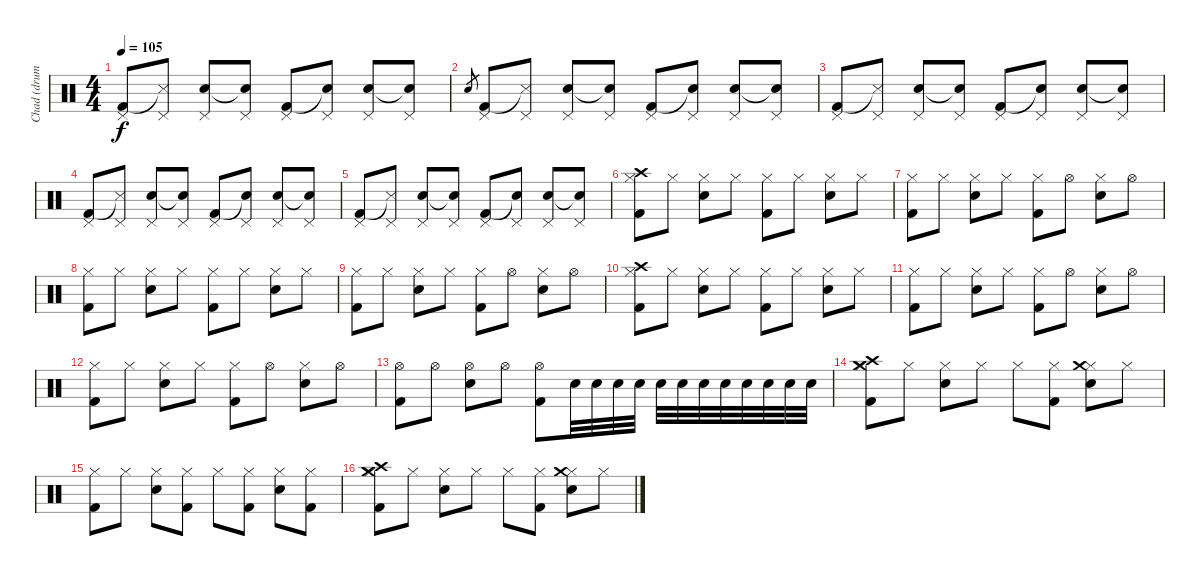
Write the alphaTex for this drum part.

\track ("Chad (drums)" "Chad (drum") {instrument percussion}
\staff {score}
\articulation defaults
\ts (4 4)
\tempo 105
\clef neutral
\ks c
("Pedal Hi-Hat (hit)" "Kick (hit) 2").8{dy f} ("Pedal Hi-Hat (hit)" "Snare (side stick) 3"{t}).8 ("Pedal Hi-Hat (hit)" "Electric Snare (hit)").8 ("Pedal Hi-Hat (hit)" "Snare (hit)"{t}).8 ("Pedal Hi-Hat (hit)" "Kick (hit) 2").8 ("Pedal Hi-Hat (hit)" "Snare (hit)"{t}).8 ("Pedal Hi-Hat (hit)" "Electric Snare (hit)").8 ("Pedal Hi-Hat (hit)" "Snare (hit)"{t}).8 |
"Electric Snare (hit)".8{gr} ("Pedal Hi-Hat (hit)" "Kick (hit) 2").8 ("Pedal Hi-Hat (hit)" "Snare (side stick) 3"{t}).8 ("Pedal Hi-Hat (hit)" "Electric Snare (hit)").8 ("Pedal Hi-Hat (hit)" "Snare (hit)"{t}).8 ("Pedal Hi-Hat (hit)" "Kick (hit) 2").8 ("Pedal Hi-Hat (hit)" "Snare (hit)"{t}).8 ("Pedal Hi-Hat (hit)" "Electric Snare (hit)").8 ("Pedal Hi-Hat (hit)" "Snare (hit)"{t}).8 |
("Pedal Hi-Hat (hit)" "Kick (hit) 2").8 ("Pedal Hi-Hat (hit)" "Snare (side stick) 3"{t}).8 ("Pedal Hi-Hat (hit)" "Electric Snare (hit)").8 ("Pedal Hi-Hat (hit)" "Snare (hit)"{t}).8 ("Pedal Hi-Hat (hit)" "Kick (hit) 2").8 ("Pedal Hi-Hat (hit)" "Snare (hit)"{t}).8 ("Pedal Hi-Hat (hit)" "Electric Snare (hit)").8 ("Pedal Hi-Hat (hit)" "Snare (hit)"{t}).8 |
("Pedal Hi-Hat (hit)" "Kick (hit) 2").8 ("Pedal Hi-Hat (hit)" "Snare (side stick) 3"{t}).8 ("Pedal Hi-Hat (hit)" "Electric Snare (hit)").8 ("Pedal Hi-Hat (hit)" "Snare (hit)"{t}).8 ("Pedal Hi-Hat (hit)" "Kick (hit) 2").8 ("Pedal Hi-Hat (hit)" "Snare (hit)"{t}).8 ("Pedal Hi-Hat (hit)" "Electric Snare (hit)").8 ("Pedal Hi-Hat (hit)" "Snare (hit)"{t}).8 |
("Pedal Hi-Hat (hit)" "Kick (hit) 2").8 ("Pedal Hi-Hat (hit)" "Snare (side stick) 3"{t}).8 ("Pedal Hi-Hat (hit)" "Electric Snare (hit)").8 ("Pedal Hi-Hat (hit)" "Snare (hit)"{t}).8 ("Pedal Hi-Hat (hit)" "Kick (hit) 2").8 ("Pedal Hi-Hat (hit)" "Snare (hit)"{t}).8 ("Pedal Hi-Hat (hit)" "Electric Snare (hit)").8 ("Pedal Hi-Hat (hit)" "Snare (hit)"{t}).8 |
("Hi-Hat (closed)" "Kick (hit) 2" "Crash high (hit)").8 "Hi-Hat (closed)".8 ("Hi-Hat (closed)" "Electric Snare (hit)").8 "Hi-Hat (closed)".8 ("Hi-Hat (closed)" "Kick (hit) 2").8 "Hi-Hat (closed)".8 ("Hi-Hat (closed)" "Electric Snare (hit)").8 "Hi-Hat (closed)".8 |
("Hi-Hat (closed)" "Kick (hit) 2").8 "Hi-Hat (closed)".8 ("Hi-Hat (closed)" "Electric Snare (hit)").8 "Hi-Hat (closed)".8 ("Hi-Hat (closed)" "Kick (hit) 2").8 "Hi-Hat (open)".8 ("Hi-Hat (closed)" "Electric Snare (hit)").8 "Hi-Hat (open)".8 |
("Hi-Hat (closed)" "Kick (hit) 2").8 "Hi-Hat (closed)".8 ("Hi-Hat (closed)" "Electric Snare (hit)").8 "Hi-Hat (closed)".8 ("Hi-Hat (closed)" "Kick (hit) 2").8 "Hi-Hat (closed)".8 ("Hi-Hat (closed)" "Electric Snare (hit)").8 "Hi-Hat (closed)".8 |
("Hi-Hat (closed)" "Kick (hit) 2").8 "Hi-Hat (closed)".8 ("Hi-Hat (closed)" "Electric Snare (hit)").8 "Hi-Hat (closed)".8 ("Hi-Hat (closed)" "Kick (hit) 2").8 "Hi-Hat (open)".8 ("Hi-Hat (closed)" "Electric Snare (hit)").8 "Hi-Hat (open)".8 |
("Hi-Hat (closed)" "Kick (hit) 2" "Crash high (hit)").8 "Hi-Hat (closed)".8 ("Hi-Hat (closed)" "Electric Snare (hit)").8 "Hi-Hat (closed)".8 ("Hi-Hat (closed)" "Kick (hit) 2").8 "Hi-Hat (closed)".8 ("Hi-Hat (closed)" "Electric Snare (hit)").8 "Hi-Hat (closed)".8 |
("Hi-Hat (closed)" "Kick (hit) 2").8 "Hi-Hat (closed)".8 ("Hi-Hat (closed)" "Electric Snare (hit)").8 "Hi-Hat (closed)".8 ("Hi-Hat (closed)" "Kick (hit) 2").8 "Hi-Hat (open)".8 ("Hi-Hat (closed)" "Electric Snare (hit)").8 "Hi-Hat (open)".8 |
("Hi-Hat (closed)" "Kick (hit) 2").8 "Hi-Hat (closed)".8 ("Hi-Hat (closed)" "Electric Snare (hit)").8 "Hi-Hat (closed)".8 ("Hi-Hat (closed)" "Kick (hit) 2").8 "Hi-Hat (open)".8 ("Hi-Hat (closed)" "Electric Snare (hit)").8 "Hi-Hat (open)".8 |
("Hi-Hat (open)" "Kick (hit) 2").8 "Hi-Hat (open)".8 ("Hi-Hat (open)" "Electric Snare (hit)").8 "Hi-Hat (open)".8 ("Hi-Hat (open)" "Kick (hit) 2").8 "Electric Snare (hit)".32 "Electric Snare (hit)".32 "Electric Snare (hit)".32 "Electric Snare (hit)".32 "Electric Snare (hit)".32 "Electric Snare (hit)".32 "Electric Snare (hit)".32 "Electric Snare (hit)".32 "Electric Snare (hit)".32 "Electric Snare (hit)".32 "Electric Snare (hit)".32 "Electric Snare (hit)".32 |
("Hi-Hat (closed)" "Kick (hit) 2" "Crash high (hit)" "Crash medium (hit)").8 "Hi-Hat (closed)".8 ("Hi-Hat (closed)" "Electric Snare (hit)").8 "Hi-Hat (closed)".8 "Hi-Hat (closed)".8 ("Hi-Hat (closed)" "Kick (hit) 2").8 ("Hi-Hat (closed)" "Electric Snare (hit)" "Crash medium (hit)").8 "Hi-Hat (closed)".8 |
("Hi-Hat (closed)" "Kick (hit) 2").8 "Hi-Hat (closed)".8 ("Hi-Hat (closed)" "Electric Snare (hit)").8 ("Hi-Hat (closed)" "Kick (hit) 2").8 "Hi-Hat (closed)".8 ("Hi-Hat (closed)" "Kick (hit) 2").8 ("Hi-Hat (closed)" "Electric Snare (hit)").8 ("Hi-Hat (closed)" "Kick (hit) 2").8 |
("Hi-Hat (closed)" "Kick (hit) 2" "Crash high (hit)" "Crash medium (hit)").8 "Hi-Hat (closed)".8 ("Hi-Hat (closed)" "Electric Snare (hit)").8 "Hi-Hat (closed)".8 "Hi-Hat (closed)".8 ("Hi-Hat (closed)" "Kick (hit) 2").8 ("Hi-Hat (closed)" "Electric Snare (hit)" "Crash medium (hit)").8 "Hi-Hat (closed)".8
